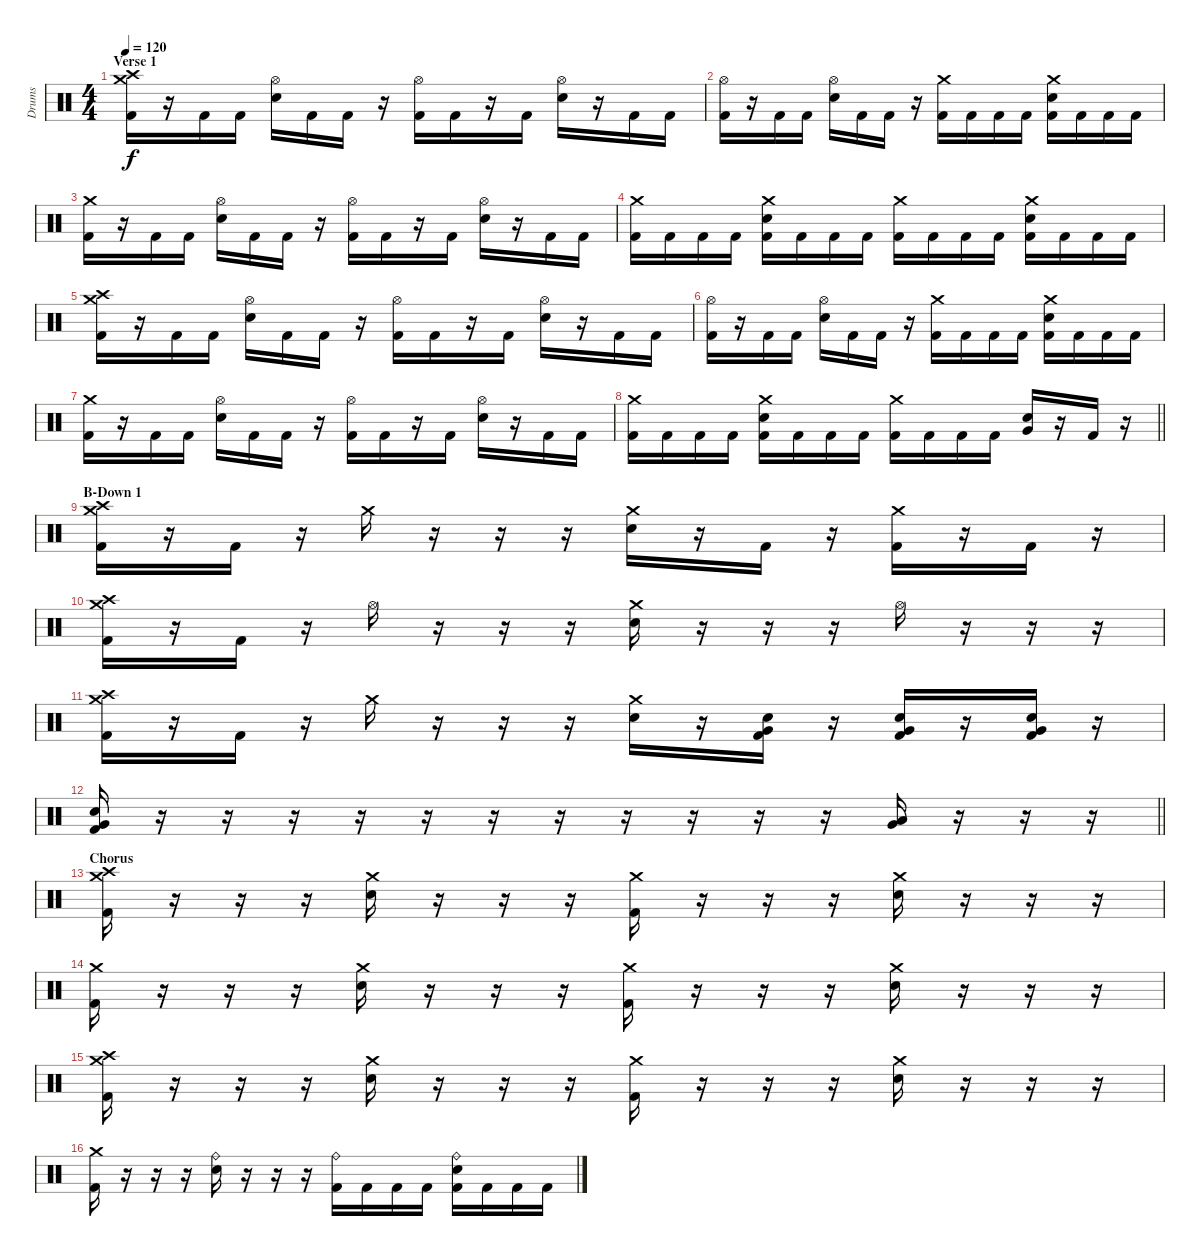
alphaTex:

\track ("Drums" "Drums") {instrument percussion}
\staff {score}
\articulation defaults
\ts (4 4)
\section ("" "Verse 1")
\tempo 120
\clef neutral
\ks c
("Crash high (hit)" "Crash medium (hit)" "Kick (hit) 2").16{dy f} r.16 "Kick (hit) 2".16 "Kick (hit) 2".16 ("Hi-Hat (open)" "Electric Snare (hit)").16 "Kick (hit) 2".16 "Kick (hit) 2".16 r.16 ("Hi-Hat (open)" "Kick (hit) 2").16 "Kick (hit) 2".16 r.16 "Kick (hit) 2".16 ("Hi-Hat (open)" "Electric Snare (hit)").16 r.16 "Kick (hit) 2".16 "Kick (hit) 2".16 |
("Hi-Hat (open)" "Kick (hit) 2").16 r.16 "Kick (hit) 2".16 "Kick (hit) 2".16 ("Hi-Hat (open)" "Electric Snare (hit)").16 "Kick (hit) 2".16 "Kick (hit) 2".16 r.16 ("Crash medium (hit)" "Kick (hit) 2").16 "Kick (hit) 2".16 "Kick (hit) 2".16 "Kick (hit) 2".16 ("Crash medium (hit)" "Electric Snare (hit)" "Kick (hit) 2").16 "Kick (hit) 2".16 "Kick (hit) 2".16 "Kick (hit) 2".16 |
("Crash medium (hit)" "Kick (hit) 2").16 r.16 "Kick (hit) 2".16 "Kick (hit) 2".16 ("Hi-Hat (open)" "Electric Snare (hit)").16 "Kick (hit) 2".16 "Kick (hit) 2".16 r.16 ("Hi-Hat (open)" "Kick (hit) 2").16 "Kick (hit) 2".16 r.16 "Kick (hit) 2".16 ("Hi-Hat (open)" "Electric Snare (hit)").16 r.16 "Kick (hit) 2".16 "Kick (hit) 2".16 |
("Crash medium (hit)" "Kick (hit) 2").16 "Kick (hit) 2".16 "Kick (hit) 2".16 "Kick (hit) 2".16 ("Crash medium (hit)" "Electric Snare (hit)" "Kick (hit) 2").16 "Kick (hit) 2".16 "Kick (hit) 2".16 "Kick (hit) 2".16 ("Crash medium (hit)" "Kick (hit) 2").16 "Kick (hit) 2".16 "Kick (hit) 2".16 "Kick (hit) 2".16 ("Crash medium (hit)" "Electric Snare (hit)" "Kick (hit) 2").16 "Kick (hit) 2".16 "Kick (hit) 2".16 "Kick (hit) 2".16 |
("Crash high (hit)" "Crash medium (hit)" "Kick (hit) 2").16 r.16 "Kick (hit) 2".16 "Kick (hit) 2".16 ("Hi-Hat (open)" "Electric Snare (hit)").16 "Kick (hit) 2".16 "Kick (hit) 2".16 r.16 ("Hi-Hat (open)" "Kick (hit) 2").16 "Kick (hit) 2".16 r.16 "Kick (hit) 2".16 ("Hi-Hat (open)" "Electric Snare (hit)").16 r.16 "Kick (hit) 2".16 "Kick (hit) 2".16 |
("Hi-Hat (open)" "Kick (hit) 2").16 r.16 "Kick (hit) 2".16 "Kick (hit) 2".16 ("Hi-Hat (open)" "Electric Snare (hit)").16 "Kick (hit) 2".16 "Kick (hit) 2".16 r.16 ("Crash medium (hit)" "Kick (hit) 2").16 "Kick (hit) 2".16 "Kick (hit) 2".16 "Kick (hit) 2".16 ("Crash medium (hit)" "Electric Snare (hit)" "Kick (hit) 2").16 "Kick (hit) 2".16 "Kick (hit) 2".16 "Kick (hit) 2".16 |
("Crash medium (hit)" "Kick (hit) 2").16 r.16 "Kick (hit) 2".16 "Kick (hit) 2".16 ("Hi-Hat (open)" "Electric Snare (hit)").16 "Kick (hit) 2".16 "Kick (hit) 2".16 r.16 ("Hi-Hat (open)" "Kick (hit) 2").16 "Kick (hit) 2".16 r.16 "Kick (hit) 2".16 ("Hi-Hat (open)" "Electric Snare (hit)").16 r.16 "Kick (hit) 2".16 "Kick (hit) 2".16 |
\barLineRight lightlight
("Crash medium (hit)" "Kick (hit) 2").16 "Kick (hit) 2".16 "Kick (hit) 2".16 "Kick (hit) 2".16 ("Crash medium (hit)" "Electric Snare (hit)" "Kick (hit) 2").16 "Kick (hit) 2".16 "Kick (hit) 2".16 "Kick (hit) 2".16 ("Crash medium (hit)" "Kick (hit) 2").16 "Kick (hit) 2".16 "Kick (hit) 2".16 "Kick (hit) 2".16 ("Electric Snare (hit)" "Very Low Tom (hit)").16 r.16 "Kick (hit) 2".16 r.16 |
\section ("" "B-Down 1")
("Crash medium (hit)" "Crash high (hit)" "Kick (hit) 2").16 r.16 "Kick (hit) 2".16 r.16 "Crash medium (hit)".16 r.16 r.16 r.16 ("Crash medium (hit)" "Electric Snare (hit)").16 r.16 "Kick (hit) 2".16 r.16 ("Crash medium (hit)" "Kick (hit) 2").16 r.16 "Kick (hit) 2".16 r.16 |
("Crash medium (hit)" "Crash high (hit)" "Kick (hit) 2").16 r.16 "Kick (hit) 2".16 r.16 "Hi-Hat (open)".16 r.16 r.16 r.16 ("Crash medium (hit)" "Electric Snare (hit)").16 r.16 r.16 r.16 "Hi-Hat (open)".16 r.16 r.16 r.16 |
("Crash medium (hit)" "Crash high (hit)" "Kick (hit) 2").16 r.16 "Kick (hit) 2".16 r.16 "Crash medium (hit)".16 r.16 r.16 r.16 ("Crash medium (hit)" "Electric Snare (hit)").16 r.16 ("Electric Snare (hit)" "Very Low Tom (hit)" "Kick (hit) 2").16 r.16 ("Electric Snare (hit)" "Very Low Tom (hit)" "Kick (hit) 2").16 r.16 ("Electric Snare (hit)" "Very Low Tom (hit)" "Kick (hit) 2").16 r.16 |
\barLineRight lightlight
("Electric Snare (hit)" "Very Low Tom (hit)" "Kick (hit) 2").16 r.16 r.16 r.16 r.16 r.16 r.16 r.16 r.16 r.16 r.16 r.16 ("Low Tom (hit)" "Very Low Tom (hit)").16{volume 16} r.16 r.16 r.16 |
\section ("" "Chorus")
("Crash medium (hit)" "Crash high (hit)" "Kick (hit) 2").16 r.16 r.16 r.16 ("Crash medium (hit)" "Electric Snare (hit)").16 r.16 r.16 r.16 ("Crash medium (hit)" "Kick (hit) 2").16 r.16 r.16 r.16 ("Crash medium (hit)" "Electric Snare (hit)").16 r.16 r.16 r.16 |
("Crash medium (hit)" "Kick (hit) 2").16 r.16 r.16 r.16 ("Crash medium (hit)" "Electric Snare (hit)").16 r.16 r.16 r.16 ("Crash medium (hit)" "Kick (hit) 2").16 r.16 r.16 r.16 ("Crash medium (hit)" "Electric Snare (hit)").16 r.16 r.16 r.16 |
("Crash medium (hit)" "Crash high (hit)" "Kick (hit) 2").16 r.16 r.16 r.16 ("Crash medium (hit)" "Electric Snare (hit)").16 r.16 r.16 r.16 ("Crash medium (hit)" "Kick (hit) 2").16 r.16 r.16 r.16 ("Crash medium (hit)" "Electric Snare (hit)").16 r.16 r.16 r.16 |
("Crash medium (hit)" "Kick (hit) 2").16 r.16 r.16 r.16 ("Ride (bell)" "Electric Snare (hit)").16 r.16 r.16 r.16 ("Ride (bell)" "Kick (hit) 2").16 "Kick (hit) 2".16 "Kick (hit) 2".16 "Kick (hit) 2".16 ("Ride (bell)" "Electric Snare (hit)" "Kick (hit) 2").16 "Kick (hit) 2".16 "Kick (hit) 2".16 "Kick (hit) 2".16
